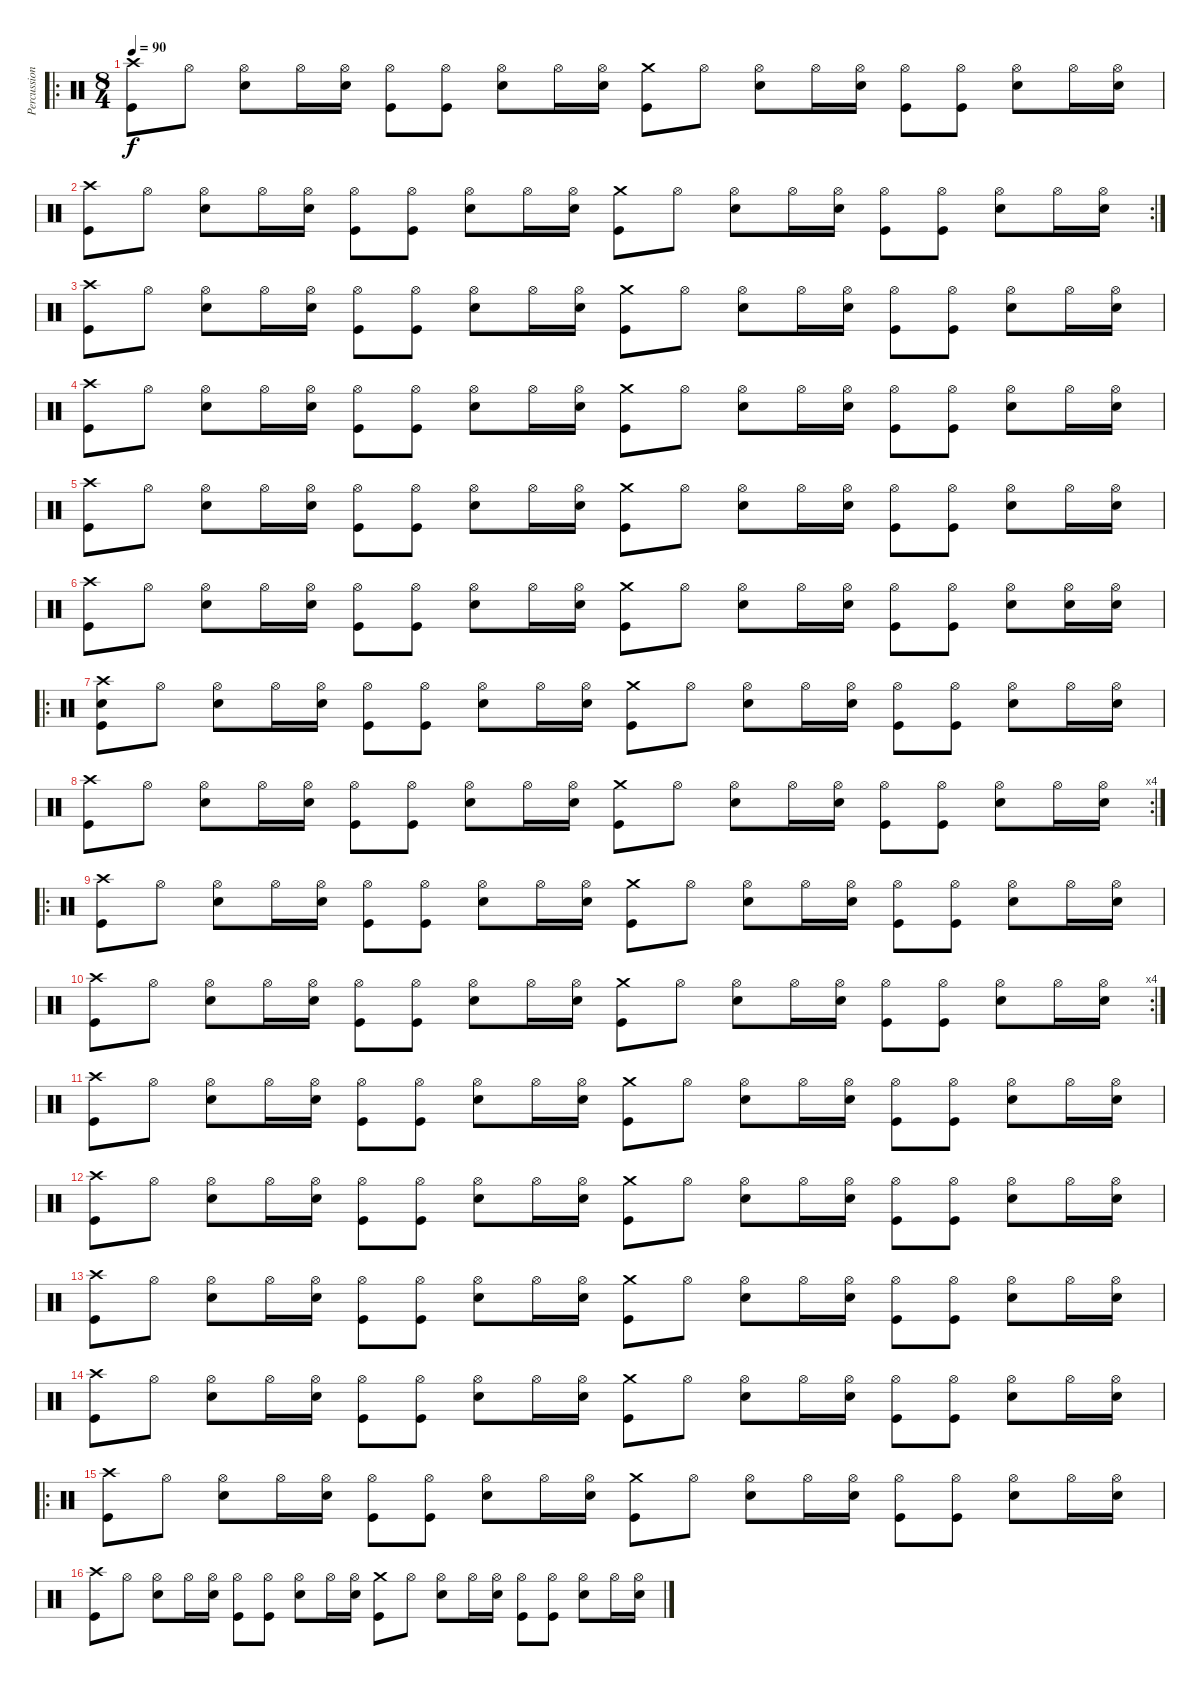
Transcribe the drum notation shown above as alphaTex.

\track ("Percussion" "Percussion") {instrument percussion}
\staff {score}
\articulation defaults
\ro
\ts (8 4)
\tempo 90
\clef neutral
\ks c
("Crash high (hit)" "Kick (hit)").8{dy f} "Hi-Hat (open)".8 ("Hi-Hat (open)" "Snare (hit) 2").8 "Hi-Hat (open)".16 ("Hi-Hat (open)" "Snare (hit) 2").16 ("Hi-Hat (open)" "Kick (hit)").8 ("Hi-Hat (open)" "Kick (hit)").8 ("Hi-Hat (open)" "Snare (hit) 2").8 "Hi-Hat (open)".16 ("Hi-Hat (open)" "Snare (hit) 2").16 ("Crash medium (hit)" "Kick (hit)").8 "Hi-Hat (open)".8 ("Hi-Hat (open)" "Snare (hit) 2").8 "Hi-Hat (open)".16 ("Hi-Hat (open)" "Snare (hit) 2").16 ("Hi-Hat (open)" "Kick (hit)").8 ("Hi-Hat (open)" "Kick (hit)").8 ("Hi-Hat (open)" "Snare (hit) 2").8 "Hi-Hat (open)".16 ("Hi-Hat (open)" "Snare (hit) 2").16 |
\rc 2
("Crash high (hit)" "Kick (hit)").8 "Hi-Hat (open)".8 ("Hi-Hat (open)" "Snare (hit) 2").8 "Hi-Hat (open)".16 ("Hi-Hat (open)" "Snare (hit) 2").16 ("Hi-Hat (open)" "Kick (hit)").8 ("Hi-Hat (open)" "Kick (hit)").8 ("Hi-Hat (open)" "Snare (hit) 2").8 "Hi-Hat (open)".16 ("Hi-Hat (open)" "Snare (hit) 2").16 ("Crash medium (hit)" "Kick (hit)").8 "Hi-Hat (open)".8 ("Hi-Hat (open)" "Snare (hit) 2").8 "Hi-Hat (open)".16 ("Hi-Hat (open)" "Snare (hit) 2").16 ("Hi-Hat (open)" "Kick (hit)").8 ("Hi-Hat (open)" "Kick (hit)").8 ("Hi-Hat (open)" "Snare (hit) 2").8 "Hi-Hat (open)".16 ("Hi-Hat (open)" "Snare (hit) 2").16 |
("Crash high (hit)" "Kick (hit)").8 "Hi-Hat (open)".8 ("Hi-Hat (open)" "Snare (hit) 2").8 "Hi-Hat (open)".16 ("Hi-Hat (open)" "Snare (hit) 2").16 ("Hi-Hat (open)" "Kick (hit)").8 ("Hi-Hat (open)" "Kick (hit)").8 ("Hi-Hat (open)" "Snare (hit) 2").8 "Hi-Hat (open)".16 ("Hi-Hat (open)" "Snare (hit) 2").16 ("Crash medium (hit)" "Kick (hit)").8 "Hi-Hat (open)".8 ("Hi-Hat (open)" "Snare (hit) 2").8 "Hi-Hat (open)".16 ("Hi-Hat (open)" "Snare (hit) 2").16 ("Hi-Hat (open)" "Kick (hit)").8 ("Hi-Hat (open)" "Kick (hit)").8 ("Hi-Hat (open)" "Snare (hit) 2").8 "Hi-Hat (open)".16 ("Hi-Hat (open)" "Snare (hit) 2").16 |
("Crash high (hit)" "Kick (hit)").8 "Hi-Hat (open)".8 ("Hi-Hat (open)" "Snare (hit) 2").8 "Hi-Hat (open)".16 ("Hi-Hat (open)" "Snare (hit) 2").16 ("Hi-Hat (open)" "Kick (hit)").8 ("Hi-Hat (open)" "Kick (hit)").8 ("Hi-Hat (open)" "Snare (hit) 2").8 "Hi-Hat (open)".16 ("Hi-Hat (open)" "Snare (hit) 2").16 ("Crash medium (hit)" "Kick (hit)").8 "Hi-Hat (open)".8 ("Hi-Hat (open)" "Snare (hit) 2").8 "Hi-Hat (open)".16 ("Hi-Hat (open)" "Snare (hit) 2").16 ("Hi-Hat (open)" "Kick (hit)").8 ("Hi-Hat (open)" "Kick (hit)").8 ("Hi-Hat (open)" "Snare (hit) 2").8 "Hi-Hat (open)".16 ("Hi-Hat (open)" "Snare (hit) 2").16 |
("Crash high (hit)" "Kick (hit)").8 "Hi-Hat (open)".8 ("Hi-Hat (open)" "Snare (hit) 2").8 "Hi-Hat (open)".16 ("Hi-Hat (open)" "Snare (hit) 2").16 ("Hi-Hat (open)" "Kick (hit)").8 ("Hi-Hat (open)" "Kick (hit)").8 ("Hi-Hat (open)" "Snare (hit) 2").8 "Hi-Hat (open)".16 ("Hi-Hat (open)" "Snare (hit) 2").16 ("Crash medium (hit)" "Kick (hit)").8 "Hi-Hat (open)".8 ("Hi-Hat (open)" "Snare (hit) 2").8 "Hi-Hat (open)".16 ("Hi-Hat (open)" "Snare (hit) 2").16 ("Hi-Hat (open)" "Kick (hit)").8 ("Hi-Hat (open)" "Kick (hit)").8 ("Hi-Hat (open)" "Snare (hit) 2").8 "Hi-Hat (open)".16 ("Hi-Hat (open)" "Snare (hit) 2").16 |
("Crash high (hit)" "Kick (hit)").8 "Hi-Hat (open)".8 ("Hi-Hat (open)" "Snare (hit) 2").8 "Hi-Hat (open)".16 ("Hi-Hat (open)" "Snare (hit) 2").16 ("Hi-Hat (open)" "Kick (hit)").8 ("Hi-Hat (open)" "Kick (hit)").8 ("Hi-Hat (open)" "Snare (hit) 2").8 "Hi-Hat (open)".16 ("Hi-Hat (open)" "Snare (hit) 2").16 ("Crash medium (hit)" "Kick (hit)").8 "Hi-Hat (open)".8 ("Hi-Hat (open)" "Snare (hit) 2").8 "Hi-Hat (open)".16 ("Hi-Hat (open)" "Snare (hit) 2").16 ("Hi-Hat (open)" "Kick (hit)").8 ("Hi-Hat (open)" "Kick (hit)").8 ("Hi-Hat (open)" "Snare (hit) 2").8 ("Hi-Hat (open)" "Snare (hit)").16 ("Hi-Hat (open)" "Snare (hit) 2").16 |
\ro
("Crash high (hit)" "Snare (hit) 2" "Kick (hit)").8 "Hi-Hat (open)".8 ("Hi-Hat (open)" "Snare (hit) 2").8 "Hi-Hat (open)".16 ("Hi-Hat (open)" "Snare (hit) 2").16 ("Hi-Hat (open)" "Kick (hit)").8 ("Hi-Hat (open)" "Kick (hit)").8 ("Hi-Hat (open)" "Snare (hit) 2").8 "Hi-Hat (open)".16 ("Hi-Hat (open)" "Snare (hit) 2").16 ("Crash medium (hit)" "Kick (hit)").8 "Hi-Hat (open)".8 ("Hi-Hat (open)" "Snare (hit) 2").8 "Hi-Hat (open)".16 ("Hi-Hat (open)" "Snare (hit) 2").16 ("Hi-Hat (open)" "Kick (hit)").8 ("Hi-Hat (open)" "Kick (hit)").8 ("Hi-Hat (open)" "Snare (hit) 2").8 "Hi-Hat (open)".16 ("Hi-Hat (open)" "Snare (hit) 2").16 |
\rc 4
("Crash high (hit)" "Kick (hit)").8 "Hi-Hat (open)".8 ("Hi-Hat (open)" "Snare (hit) 2").8 "Hi-Hat (open)".16 ("Hi-Hat (open)" "Snare (hit) 2").16 ("Hi-Hat (open)" "Kick (hit)").8 ("Hi-Hat (open)" "Kick (hit)").8 ("Hi-Hat (open)" "Snare (hit) 2").8 "Hi-Hat (open)".16 ("Hi-Hat (open)" "Snare (hit) 2").16 ("Crash medium (hit)" "Kick (hit)").8 "Hi-Hat (open)".8 ("Hi-Hat (open)" "Snare (hit) 2").8 "Hi-Hat (open)".16 ("Hi-Hat (open)" "Snare (hit) 2").16 ("Hi-Hat (open)" "Kick (hit)").8 ("Hi-Hat (open)" "Kick (hit)").8 ("Hi-Hat (open)" "Snare (hit) 2").8 "Hi-Hat (open)".16 ("Hi-Hat (open)" "Snare (hit) 2").16 |
\ro
("Crash high (hit)" "Kick (hit)").8 "Hi-Hat (open)".8 ("Hi-Hat (open)" "Snare (hit) 2").8 "Hi-Hat (open)".16 ("Hi-Hat (open)" "Snare (hit) 2").16 ("Hi-Hat (open)" "Kick (hit)").8 ("Hi-Hat (open)" "Kick (hit)").8 ("Hi-Hat (open)" "Snare (hit) 2").8 "Hi-Hat (open)".16 ("Hi-Hat (open)" "Snare (hit) 2").16 ("Crash medium (hit)" "Kick (hit)").8 "Hi-Hat (open)".8 ("Hi-Hat (open)" "Snare (hit) 2").8 "Hi-Hat (open)".16 ("Hi-Hat (open)" "Snare (hit) 2").16 ("Hi-Hat (open)" "Kick (hit)").8 ("Hi-Hat (open)" "Kick (hit)").8 ("Hi-Hat (open)" "Snare (hit) 2").8 "Hi-Hat (open)".16 ("Hi-Hat (open)" "Snare (hit) 2").16 |
\rc 4
("Crash high (hit)" "Kick (hit)").8 "Hi-Hat (open)".8 ("Hi-Hat (open)" "Snare (hit) 2").8 "Hi-Hat (open)".16 ("Hi-Hat (open)" "Snare (hit) 2").16 ("Hi-Hat (open)" "Kick (hit)").8 ("Hi-Hat (open)" "Kick (hit)").8 ("Hi-Hat (open)" "Snare (hit) 2").8 "Hi-Hat (open)".16 ("Hi-Hat (open)" "Snare (hit) 2").16 ("Crash medium (hit)" "Kick (hit)").8 "Hi-Hat (open)".8 ("Hi-Hat (open)" "Snare (hit) 2").8 "Hi-Hat (open)".16 ("Hi-Hat (open)" "Snare (hit) 2").16 ("Hi-Hat (open)" "Kick (hit)").8 ("Hi-Hat (open)" "Kick (hit)").8 ("Hi-Hat (open)" "Snare (hit) 2").8 "Hi-Hat (open)".16 ("Hi-Hat (open)" "Snare (hit) 2").16 |
("Crash high (hit)" "Kick (hit)").8 "Hi-Hat (open)".8 ("Hi-Hat (open)" "Snare (hit) 2").8 "Hi-Hat (open)".16 ("Hi-Hat (open)" "Snare (hit) 2").16 ("Hi-Hat (open)" "Kick (hit)").8 ("Hi-Hat (open)" "Kick (hit)").8 ("Hi-Hat (open)" "Snare (hit) 2").8 "Hi-Hat (open)".16 ("Hi-Hat (open)" "Snare (hit) 2").16 ("Crash medium (hit)" "Kick (hit)").8 "Hi-Hat (open)".8 ("Hi-Hat (open)" "Snare (hit) 2").8 "Hi-Hat (open)".16 ("Hi-Hat (open)" "Snare (hit) 2").16 ("Hi-Hat (open)" "Kick (hit)").8 ("Hi-Hat (open)" "Kick (hit)").8 ("Hi-Hat (open)" "Snare (hit) 2").8 "Hi-Hat (open)".16 ("Hi-Hat (open)" "Snare (hit) 2").16 |
("Crash high (hit)" "Kick (hit)").8 "Hi-Hat (open)".8 ("Hi-Hat (open)" "Snare (hit) 2").8 "Hi-Hat (open)".16 ("Hi-Hat (open)" "Snare (hit) 2").16 ("Hi-Hat (open)" "Kick (hit)").8 ("Hi-Hat (open)" "Kick (hit)").8 ("Hi-Hat (open)" "Snare (hit) 2").8 "Hi-Hat (open)".16 ("Hi-Hat (open)" "Snare (hit) 2").16 ("Crash medium (hit)" "Kick (hit)").8 "Hi-Hat (open)".8 ("Hi-Hat (open)" "Snare (hit) 2").8 "Hi-Hat (open)".16 ("Hi-Hat (open)" "Snare (hit) 2").16 ("Hi-Hat (open)" "Kick (hit)").8 ("Hi-Hat (open)" "Kick (hit)").8 ("Hi-Hat (open)" "Snare (hit) 2").8 "Hi-Hat (open)".16 ("Hi-Hat (open)" "Snare (hit) 2").16 |
("Crash high (hit)" "Kick (hit)").8 "Hi-Hat (open)".8 ("Hi-Hat (open)" "Snare (hit) 2").8 "Hi-Hat (open)".16 ("Hi-Hat (open)" "Snare (hit) 2").16 ("Hi-Hat (open)" "Kick (hit)").8 ("Hi-Hat (open)" "Kick (hit)").8 ("Hi-Hat (open)" "Snare (hit) 2").8 "Hi-Hat (open)".16 ("Hi-Hat (open)" "Snare (hit) 2").16 ("Crash medium (hit)" "Kick (hit)").8 "Hi-Hat (open)".8 ("Hi-Hat (open)" "Snare (hit) 2").8 "Hi-Hat (open)".16 ("Hi-Hat (open)" "Snare (hit) 2").16 ("Hi-Hat (open)" "Kick (hit)").8 ("Hi-Hat (open)" "Kick (hit)").8 ("Hi-Hat (open)" "Snare (hit) 2").8 "Hi-Hat (open)".16 ("Hi-Hat (open)" "Snare (hit) 2").16 |
("Crash high (hit)" "Kick (hit)").8 "Hi-Hat (open)".8 ("Hi-Hat (open)" "Snare (hit) 2").8 "Hi-Hat (open)".16 ("Hi-Hat (open)" "Snare (hit) 2").16 ("Hi-Hat (open)" "Kick (hit)").8 ("Hi-Hat (open)" "Kick (hit)").8 ("Hi-Hat (open)" "Snare (hit) 2").8 "Hi-Hat (open)".16 ("Hi-Hat (open)" "Snare (hit) 2").16 ("Crash medium (hit)" "Kick (hit)").8 "Hi-Hat (open)".8 ("Hi-Hat (open)" "Snare (hit) 2").8 "Hi-Hat (open)".16 ("Hi-Hat (open)" "Snare (hit) 2").16 ("Hi-Hat (open)" "Kick (hit)").8 ("Hi-Hat (open)" "Kick (hit)").8 ("Hi-Hat (open)" "Snare (hit) 2").8 "Hi-Hat (open)".16 ("Hi-Hat (open)" "Snare (hit) 2").16 |
\ro
("Crash high (hit)" "Kick (hit)").8 "Hi-Hat (open)".8 ("Hi-Hat (open)" "Snare (hit) 2").8 "Hi-Hat (open)".16 ("Hi-Hat (open)" "Snare (hit) 2").16 ("Hi-Hat (open)" "Kick (hit)").8 ("Hi-Hat (open)" "Kick (hit)").8 ("Hi-Hat (open)" "Snare (hit) 2").8 "Hi-Hat (open)".16 ("Hi-Hat (open)" "Snare (hit) 2").16 ("Crash medium (hit)" "Kick (hit)").8 "Hi-Hat (open)".8 ("Hi-Hat (open)" "Snare (hit) 2").8 "Hi-Hat (open)".16 ("Hi-Hat (open)" "Snare (hit) 2").16 ("Hi-Hat (open)" "Kick (hit)").8 ("Hi-Hat (open)" "Kick (hit)").8 ("Hi-Hat (open)" "Snare (hit) 2").8 "Hi-Hat (open)".16 ("Hi-Hat (open)" "Snare (hit) 2").16 |
("Crash high (hit)" "Kick (hit)").8 "Hi-Hat (open)".8 ("Hi-Hat (open)" "Snare (hit) 2").8 "Hi-Hat (open)".16 ("Hi-Hat (open)" "Snare (hit) 2").16 ("Hi-Hat (open)" "Kick (hit)").8 ("Hi-Hat (open)" "Kick (hit)").8 ("Hi-Hat (open)" "Snare (hit) 2").8 "Hi-Hat (open)".16 ("Hi-Hat (open)" "Snare (hit) 2").16 ("Crash medium (hit)" "Kick (hit)").8 "Hi-Hat (open)".8 ("Hi-Hat (open)" "Snare (hit) 2").8 "Hi-Hat (open)".16 ("Hi-Hat (open)" "Snare (hit) 2").16 ("Hi-Hat (open)" "Kick (hit)").8 ("Hi-Hat (open)" "Kick (hit)").8 ("Hi-Hat (open)" "Snare (hit) 2").8 "Hi-Hat (open)".16 ("Hi-Hat (open)" "Snare (hit) 2").16
